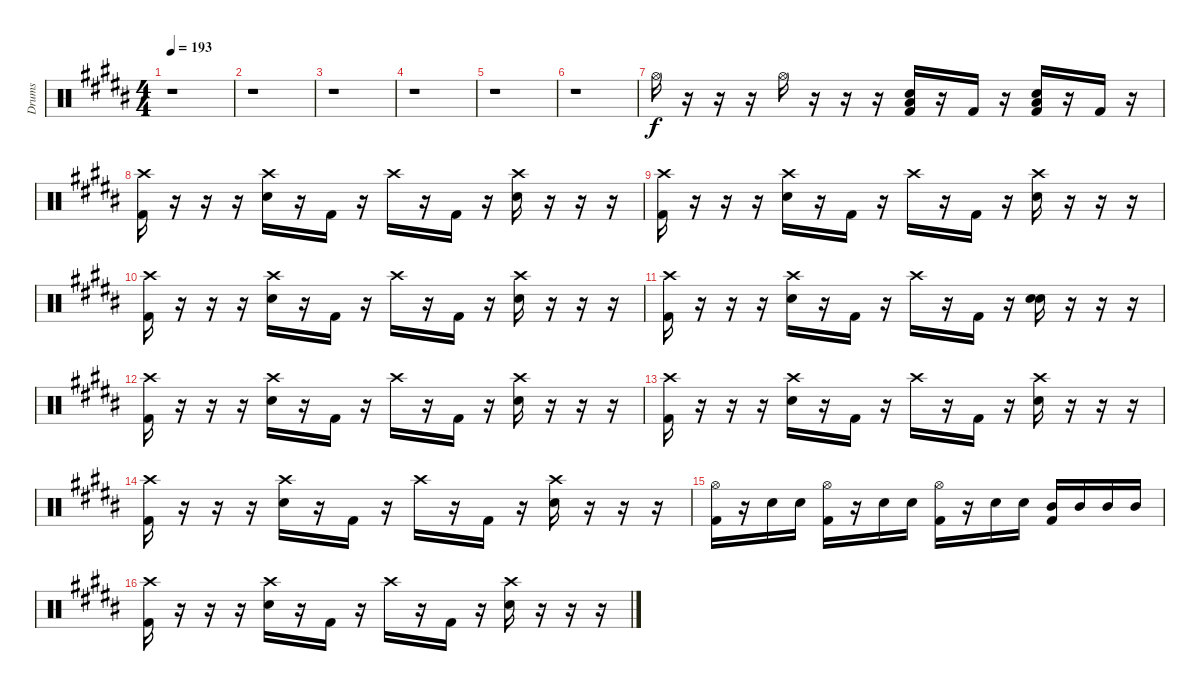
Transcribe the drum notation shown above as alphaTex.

\track ("Drums" "Drums") {instrument percussion}
\staff {score}
\articulation defaults
\ts (4 4)
\tempo 193
\clef neutral
\ks b
r.1{dy f} |
r.1 |
r.1 |
r.1 |
r.1 |
r.1 |
"Hi-Hat (open)".16 r.16 r.16 r.16 "Hi-Hat (open)".16 r.16 r.16 r.16 ("Electric Snare (hit)" "Low Tom (hit)" "Kick (hit) 2").16 r.16 "Kick (hit) 2".16 r.16 ("Electric Snare (hit)" "Low Tom (hit)" "Kick (hit) 2").16 r.16 "Kick (hit) 2".16 r.16 |
("Crash high (hit)" "Kick (hit) 2").16 r.16 r.16 r.16 ("Electric Snare (hit)" "Crash high (hit)").16 r.16 "Kick (hit) 2".16 r.16 "Crash high (hit)".16 r.16 "Kick (hit) 2".16 r.16 ("Electric Snare (hit)" "Crash high (hit)").16 r.16 r.16 r.16 |
("Crash high (hit)" "Kick (hit) 2").16 r.16 r.16 r.16 ("Electric Snare (hit)" "Crash high (hit)").16 r.16 "Kick (hit) 2".16 r.16 "Crash high (hit)".16 r.16 "Kick (hit) 2".16 r.16 ("Electric Snare (hit)" "Crash high (hit)").16 r.16 r.16 r.16 |
("Crash high (hit)" "Kick (hit) 2").16 r.16 r.16 r.16 ("Electric Snare (hit)" "Crash high (hit)").16 r.16 "Kick (hit) 2".16 r.16 "Crash high (hit)".16 r.16 "Kick (hit) 2".16 r.16 ("Electric Snare (hit)" "Crash high (hit)").16 r.16 r.16 r.16 |
("Crash high (hit)" "Kick (hit) 2").16 r.16 r.16 r.16 ("Electric Snare (hit)" "Crash high (hit)").16 r.16 "Kick (hit) 2".16 r.16 "Crash high (hit)".16 r.16 "Kick (hit) 2".16 r.16 ("Electric Snare (hit)" "Electric Snare (hit)").16 r.16 r.16 r.16 |
("Crash high (hit)" "Kick (hit) 2").16 r.16 r.16 r.16 ("Electric Snare (hit)" "Crash high (hit)").16 r.16 "Kick (hit) 2".16 r.16 "Crash high (hit)".16 r.16 "Kick (hit) 2".16 r.16 ("Electric Snare (hit)" "Crash high (hit)").16 r.16 r.16 r.16 |
("Crash high (hit)" "Kick (hit) 2").16 r.16 r.16 r.16 ("Electric Snare (hit)" "Crash high (hit)").16 r.16 "Kick (hit) 2".16 r.16 "Crash high (hit)".16 r.16 "Kick (hit) 2".16 r.16 ("Electric Snare (hit)" "Crash high (hit)").16 r.16 r.16 r.16 |
("Crash high (hit)" "Kick (hit) 2").16 r.16 r.16 r.16 ("Electric Snare (hit)" "Crash high (hit)").16 r.16 "Kick (hit) 2".16 r.16 "Crash high (hit)".16 r.16 "Kick (hit) 2".16 r.16 ("Electric Snare (hit)" "Crash high (hit)").16 r.16 r.16 r.16 |
("Hi-Hat (open)" "Kick (hit) 2").16 r.16 "Electric Snare (hit)".16 "Electric Snare (hit)".16 ("Hi-Hat (open)" "Kick (hit) 2").16 r.16 "Electric Snare (hit)".16 "Electric Snare (hit)".16 ("Hi-Hat (open)" "Kick (hit) 2").16 r.16 "Electric Snare (hit)".16 "Electric Snare (hit)".16 ("Mid Tom (hit)" "Kick (hit) 2").16 "Mid Tom (hit)".16 "Mid Tom (hit)".16 "Mid Tom (hit)".16 |
("Crash high (hit)" "Kick (hit) 2").16 r.16 r.16 r.16 ("Electric Snare (hit)" "Crash high (hit)").16 r.16 "Kick (hit) 2".16 r.16 "Crash high (hit)".16 r.16 "Kick (hit) 2".16 r.16 ("Electric Snare (hit)" "Crash high (hit)").16 r.16 r.16 r.16
